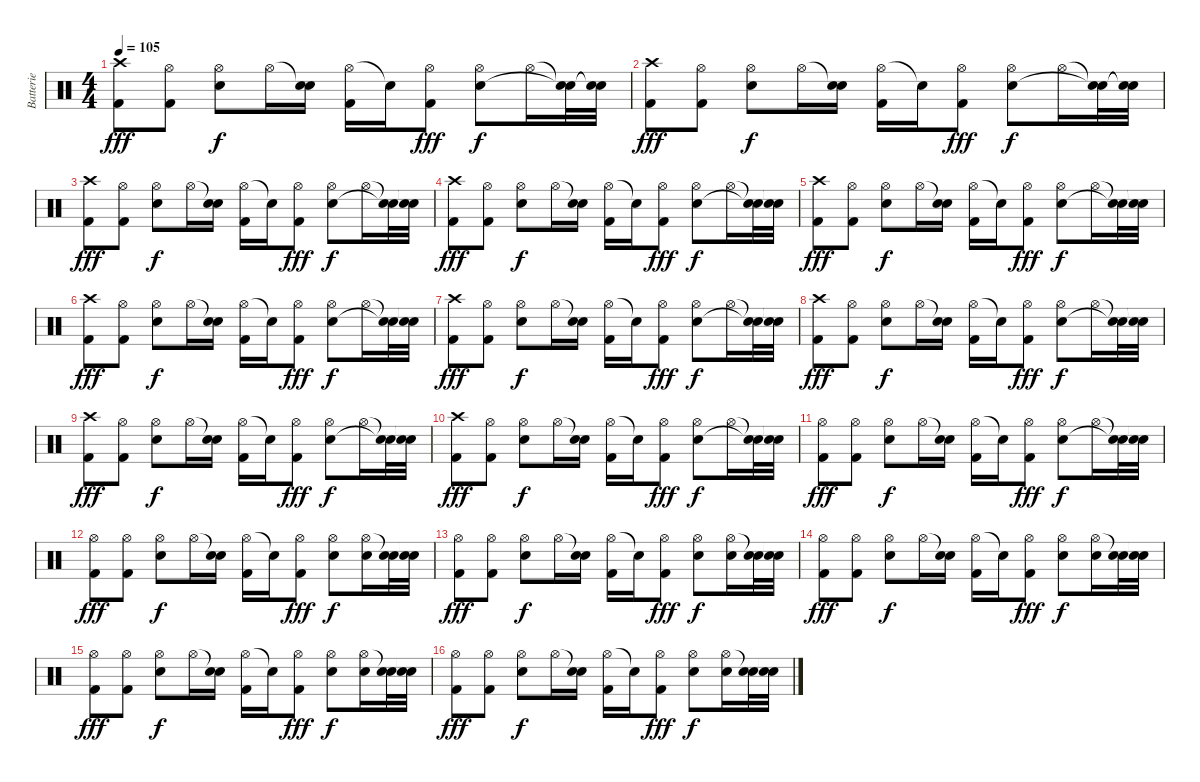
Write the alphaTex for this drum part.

\track ("Batterie" "Batterie") {instrument percussion}
\staff {score}
\articulation defaults
\ts (4 4)
\tempo 105
\clef neutral
\ks c
("Crash high (hit)" "Kick (hit) 2").8{dy fff} ("Hi-Hat (open)" "Kick (hit) 2").8 ("Hi-Hat (open)" "Electric Snare (hit)").8{dy f} "Hi-Hat (open)".16 ("Snare (hit)"{t} "Electric Snare (hit)").16 ("Hi-Hat (open)" "Kick (hit) 2").16 "Snare (hit)"{t}.16 ("Hi-Hat (open)" "Kick (hit) 2").8{dy fff} ("Hi-Hat (open)" "Electric Snare (hit)").8{dy f} "Hi-Hat (open)".16 ("Snare (hit)"{t} "Snare (hit) 2"{t}).32 ("Snare (hit)"{t} "Snare (hit) 2"{t}).32 |
("Crash high (hit)" "Kick (hit) 2").8{dy fff} ("Hi-Hat (open)" "Kick (hit) 2").8 ("Hi-Hat (open)" "Electric Snare (hit)").8{dy f} "Hi-Hat (open)".16 ("Snare (hit)"{t} "Electric Snare (hit)").16 ("Hi-Hat (open)" "Kick (hit) 2").16 "Snare (hit)"{t}.16 ("Hi-Hat (open)" "Kick (hit) 2").8{dy fff} ("Hi-Hat (open)" "Electric Snare (hit)").8{dy f} "Hi-Hat (open)".16 ("Snare (hit)"{t} "Snare (hit) 2"{t}).32 ("Snare (hit)"{t} "Snare (hit) 2"{t}).32 |
("Crash high (hit)" "Kick (hit) 2").8{dy fff} ("Hi-Hat (open)" "Kick (hit) 2").8 ("Hi-Hat (open)" "Electric Snare (hit)").8{dy f} "Hi-Hat (open)".16 ("Snare (hit)"{t} "Electric Snare (hit)").16 ("Hi-Hat (open)" "Kick (hit) 2").16 "Snare (hit)"{t}.16 ("Hi-Hat (open)" "Kick (hit) 2").8{dy fff} ("Hi-Hat (open)" "Electric Snare (hit)").8{dy f} "Hi-Hat (open)".16 ("Snare (hit)"{t} "Snare (hit) 2"{t}).32 ("Snare (hit)"{t} "Snare (hit) 2"{t}).32 |
("Crash high (hit)" "Kick (hit) 2").8{dy fff} ("Hi-Hat (open)" "Kick (hit) 2").8 ("Hi-Hat (open)" "Electric Snare (hit)").8{dy f} "Hi-Hat (open)".16 ("Snare (hit)"{t} "Electric Snare (hit)").16 ("Hi-Hat (open)" "Kick (hit) 2").16 "Snare (hit)"{t}.16 ("Hi-Hat (open)" "Kick (hit) 2").8{dy fff} ("Hi-Hat (open)" "Electric Snare (hit)").8{dy f} "Hi-Hat (open)".16 ("Snare (hit)"{t} "Snare (hit) 2"{t}).32 ("Snare (hit)"{t} "Snare (hit) 2"{t}).32 |
("Crash high (hit)" "Kick (hit) 2").8{dy fff} ("Hi-Hat (open)" "Kick (hit) 2").8 ("Hi-Hat (open)" "Electric Snare (hit)").8{dy f} "Hi-Hat (open)".16 ("Snare (hit)"{t} "Electric Snare (hit)").16 ("Hi-Hat (open)" "Kick (hit) 2").16 "Snare (hit)"{t}.16 ("Hi-Hat (open)" "Kick (hit) 2").8{dy fff} ("Hi-Hat (open)" "Electric Snare (hit)").8{dy f} "Hi-Hat (open)".16 ("Snare (hit)"{t} "Snare (hit) 2"{t}).32 ("Snare (hit)"{t} "Snare (hit) 2"{t}).32 |
("Crash high (hit)" "Kick (hit) 2").8{dy fff} ("Hi-Hat (open)" "Kick (hit) 2").8 ("Hi-Hat (open)" "Electric Snare (hit)").8{dy f} "Hi-Hat (open)".16 ("Snare (hit)"{t} "Electric Snare (hit)").16 ("Hi-Hat (open)" "Kick (hit) 2").16 "Snare (hit)"{t}.16 ("Hi-Hat (open)" "Kick (hit) 2").8{dy fff} ("Hi-Hat (open)" "Electric Snare (hit)").8{dy f} "Hi-Hat (open)".16 ("Snare (hit)"{t} "Snare (hit) 2"{t}).32 ("Snare (hit)"{t} "Snare (hit) 2"{t}).32 |
("Crash high (hit)" "Kick (hit) 2").8{dy fff} ("Hi-Hat (open)" "Kick (hit) 2").8 ("Hi-Hat (open)" "Electric Snare (hit)").8{dy f} "Hi-Hat (open)".16 ("Snare (hit)"{t} "Electric Snare (hit)").16 ("Hi-Hat (open)" "Kick (hit) 2").16 "Snare (hit)"{t}.16 ("Hi-Hat (open)" "Kick (hit) 2").8{dy fff} ("Hi-Hat (open)" "Electric Snare (hit)").8{dy f} "Hi-Hat (open)".16 ("Snare (hit)"{t} "Snare (hit) 2"{t}).32 ("Snare (hit)"{t} "Snare (hit) 2"{t}).32 |
("Crash high (hit)" "Kick (hit) 2").8{dy fff} ("Hi-Hat (open)" "Kick (hit) 2").8 ("Hi-Hat (open)" "Electric Snare (hit)").8{dy f} "Hi-Hat (open)".16 ("Snare (hit)"{t} "Electric Snare (hit)").16 ("Hi-Hat (open)" "Kick (hit) 2").16 "Snare (hit)"{t}.16 ("Hi-Hat (open)" "Kick (hit) 2").8{dy fff} ("Hi-Hat (open)" "Electric Snare (hit)").8{dy f} "Hi-Hat (open)".16 ("Snare (hit)"{t} "Snare (hit) 2"{t}).32 ("Snare (hit)"{t} "Snare (hit) 2"{t}).32 |
("Crash high (hit)" "Kick (hit) 2").8{dy fff} ("Hi-Hat (open)" "Kick (hit) 2").8 ("Hi-Hat (open)" "Electric Snare (hit)").8{dy f} "Hi-Hat (open)".16 ("Snare (hit)"{t} "Electric Snare (hit)").16 ("Hi-Hat (open)" "Kick (hit) 2").16 "Snare (hit)"{t}.16 ("Hi-Hat (open)" "Kick (hit) 2").8{dy fff} ("Hi-Hat (open)" "Electric Snare (hit)").8{dy f} "Hi-Hat (open)".16 ("Snare (hit)"{t} "Snare (hit) 2"{t}).32 ("Snare (hit)"{t} "Snare (hit) 2"{t}).32 |
("Crash high (hit)" "Kick (hit) 2").8{dy fff} ("Hi-Hat (open)" "Kick (hit) 2").8 ("Hi-Hat (open)" "Electric Snare (hit)").8{dy f} "Hi-Hat (open)".16 ("Snare (hit)"{t} "Electric Snare (hit)").16 ("Hi-Hat (open)" "Kick (hit) 2").16 "Snare (hit)"{t}.16 ("Hi-Hat (open)" "Kick (hit) 2").8{dy fff} ("Hi-Hat (open)" "Electric Snare (hit)").8{dy f} "Hi-Hat (open)".16 ("Snare (hit)"{t} "Snare (hit) 2"{t}).32 ("Snare (hit)"{t} "Snare (hit) 2"{t}).32 |
("Hi-Hat (open)" "Kick (hit) 2").8{dy fff} ("Hi-Hat (open)" "Kick (hit) 2").8 ("Hi-Hat (open)" "Electric Snare (hit)").8{dy f} "Hi-Hat (open)".16 ("Snare (hit)"{t} "Electric Snare (hit)").16 ("Hi-Hat (open)" "Kick (hit) 2").16 "Snare (hit)"{t}.16 ("Hi-Hat (open)" "Kick (hit) 2").8{dy fff} ("Hi-Hat (open)" "Electric Snare (hit)").8{dy f} "Hi-Hat (open)".16 ("Snare (hit)"{t} "Snare (hit) 2"{t}).32 ("Snare (hit)"{t} "Snare (hit) 2"{t}).32 |
("Hi-Hat (open)" "Kick (hit) 2").8{dy fff} ("Hi-Hat (open)" "Kick (hit) 2").8 ("Hi-Hat (open)" "Electric Snare (hit)").8{dy f} "Hi-Hat (open)".16 ("Snare (hit)"{t} "Electric Snare (hit)").16 ("Hi-Hat (open)" "Kick (hit) 2").16 "Snare (hit)"{t}.16 ("Hi-Hat (open)" "Kick (hit) 2").8{dy fff} ("Hi-Hat (open)" "Electric Snare (hit)").8{dy f} ("Hi-Hat (open)" "Electric Snare (hit)").16 ("Snare (hit)"{t} "Electric Snare (hit)").32 ("Snare (hit)"{t} "Electric Snare (hit)").32 |
("Hi-Hat (open)" "Kick (hit) 2").8{dy fff} ("Hi-Hat (open)" "Kick (hit) 2").8 ("Hi-Hat (open)" "Electric Snare (hit)").8{dy f} "Hi-Hat (open)".16 ("Snare (hit)"{t} "Electric Snare (hit)").16 ("Hi-Hat (open)" "Kick (hit) 2").16 "Snare (hit)"{t}.16 ("Hi-Hat (open)" "Kick (hit) 2").8{dy fff} ("Hi-Hat (open)" "Electric Snare (hit)").8{dy f} ("Hi-Hat (open)" "Electric Snare (hit)").16 ("Snare (hit)"{t} "Electric Snare (hit)").32 ("Snare (hit)"{t} "Electric Snare (hit)").32 |
("Hi-Hat (open)" "Kick (hit) 2").8{dy fff} ("Hi-Hat (open)" "Kick (hit) 2").8 ("Hi-Hat (open)" "Electric Snare (hit)").8{dy f} "Hi-Hat (open)".16 ("Snare (hit)"{t} "Electric Snare (hit)").16 ("Hi-Hat (open)" "Kick (hit) 2").16 "Snare (hit)"{t}.16 ("Hi-Hat (open)" "Kick (hit) 2").8{dy fff} ("Hi-Hat (open)" "Electric Snare (hit)").8{dy f} ("Hi-Hat (open)" "Electric Snare (hit)").16 ("Snare (hit)"{t} "Electric Snare (hit)").32 ("Snare (hit)"{t} "Electric Snare (hit)").32 |
("Hi-Hat (open)" "Kick (hit) 2").8{dy fff} ("Hi-Hat (open)" "Kick (hit) 2").8 ("Hi-Hat (open)" "Electric Snare (hit)").8{dy f} "Hi-Hat (open)".16 ("Snare (hit)"{t} "Electric Snare (hit)").16 ("Hi-Hat (open)" "Kick (hit) 2").16 "Snare (hit)"{t}.16 ("Hi-Hat (open)" "Kick (hit) 2").8{dy fff} ("Hi-Hat (open)" "Electric Snare (hit)").8{dy f} ("Hi-Hat (open)" "Electric Snare (hit)").16 ("Snare (hit)"{t} "Electric Snare (hit)").32 ("Snare (hit)"{t} "Electric Snare (hit)").32 |
("Hi-Hat (open)" "Kick (hit) 2").8{dy fff} ("Hi-Hat (open)" "Kick (hit) 2").8 ("Hi-Hat (open)" "Electric Snare (hit)").8{dy f} "Hi-Hat (open)".16 ("Snare (hit)"{t} "Electric Snare (hit)").16 ("Hi-Hat (open)" "Kick (hit) 2").16 "Snare (hit)"{t}.16 ("Hi-Hat (open)" "Kick (hit) 2").8{dy fff} ("Hi-Hat (open)" "Electric Snare (hit)").8{dy f} ("Hi-Hat (open)" "Electric Snare (hit)").16 ("Snare (hit)"{t} "Electric Snare (hit)").32 ("Snare (hit)"{t} "Electric Snare (hit)").32
